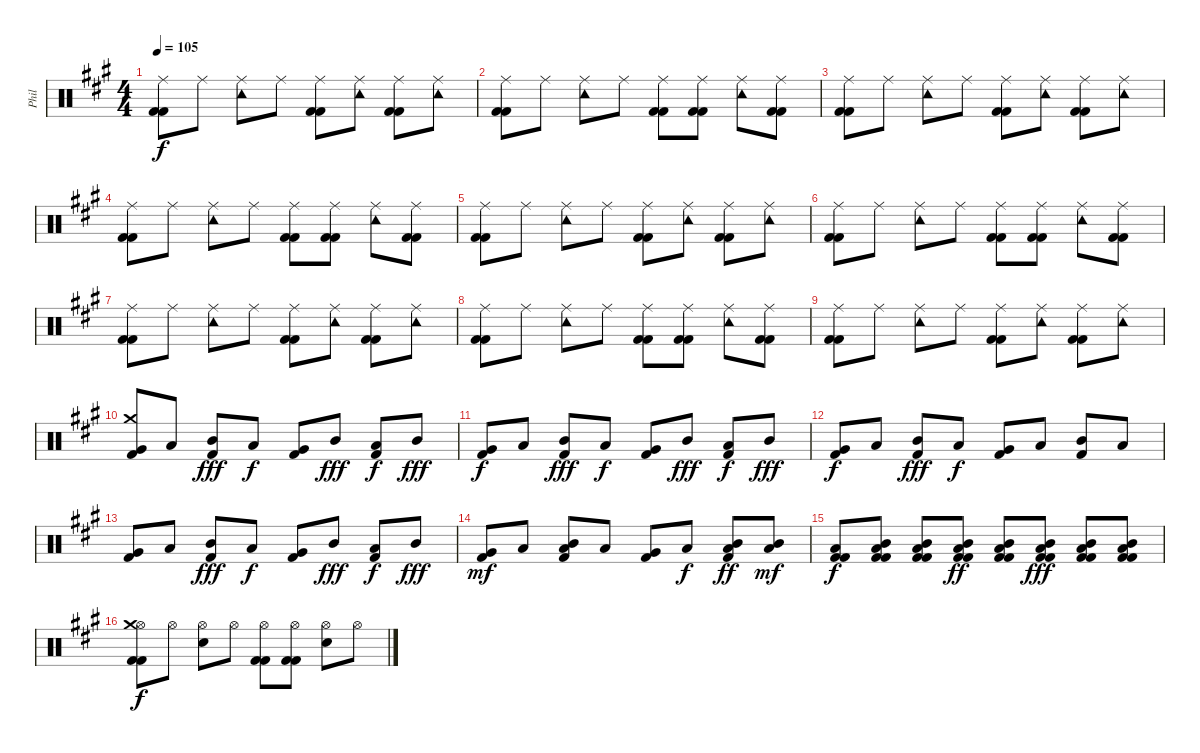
\track ("Phil" "Phil") {instrument percussion}
\staff {score}
\articulation defaults
\ts (4 4)
\tempo 105
\clef neutral
\ks a
("Kick (hit) 2" "Ride (middle)" "Kick (hit) 2").8{dy f} "Ride (middle)".8 ("Ride (middle)" "Tambourine (hit)").8 "Ride (middle)".8 ("Kick (hit) 2" "Ride (middle)" "Kick (hit) 2").8 ("Ride (middle)" "Tambourine (hit)").8 ("Kick (hit) 2" "Ride (middle)" "Kick (hit) 2").8 ("Ride (middle)" "Tambourine (hit)").8 |
("Kick (hit) 2" "Ride (middle)" "Kick (hit) 2").8 "Ride (middle)".8 ("Ride (middle)" "Tambourine (hit)").8 "Ride (middle)".8 ("Kick (hit) 2" "Ride (middle)" "Kick (hit) 2").8 ("Kick (hit) 2" "Ride (middle)" "Kick (hit) 2").8 ("Ride (middle)" "Tambourine (hit)").8 ("Kick (hit) 2" "Ride (middle)" "Kick (hit) 2").8 |
("Kick (hit) 2" "Ride (middle)" "Kick (hit) 2").8 "Ride (middle)".8 ("Ride (middle)" "Tambourine (hit)").8 "Ride (middle)".8 ("Kick (hit) 2" "Ride (middle)" "Kick (hit) 2").8 ("Ride (middle)" "Tambourine (hit)").8 ("Kick (hit) 2" "Ride (middle)" "Kick (hit) 2").8 ("Ride (middle)" "Tambourine (hit)").8 |
("Kick (hit) 2" "Ride (middle)" "Kick (hit) 2").8 "Ride (middle)".8 ("Ride (middle)" "Tambourine (hit)").8 "Ride (middle)".8 ("Kick (hit) 2" "Ride (middle)" "Kick (hit) 2").8 ("Kick (hit) 2" "Ride (middle)" "Kick (hit) 2").8 ("Ride (middle)" "Tambourine (hit)").8 ("Kick (hit) 2" "Ride (middle)" "Kick (hit) 2").8 |
("Kick (hit) 2" "Ride (middle)" "Kick (hit) 2").8 "Ride (middle)".8 ("Ride (middle)" "Tambourine (hit)").8 "Ride (middle)".8 ("Kick (hit) 2" "Ride (middle)" "Kick (hit) 2").8 ("Ride (middle)" "Tambourine (hit)").8 ("Kick (hit) 2" "Ride (middle)" "Kick (hit) 2").8 ("Ride (middle)" "Tambourine (hit)").8 |
("Kick (hit) 2" "Ride (middle)" "Kick (hit) 2").8 "Ride (middle)".8 ("Ride (middle)" "Tambourine (hit)").8 "Ride (middle)".8 ("Kick (hit) 2" "Ride (middle)" "Kick (hit) 2").8 ("Kick (hit) 2" "Ride (middle)" "Kick (hit) 2").8 ("Ride (middle)" "Tambourine (hit)").8 ("Kick (hit) 2" "Ride (middle)" "Kick (hit) 2").8 |
("Kick (hit) 2" "Ride (middle)" "Kick (hit) 2").8 "Ride (middle)".8 ("Ride (middle)" "Tambourine (hit)").8 "Ride (middle)".8 ("Kick (hit) 2" "Ride (middle)" "Kick (hit) 2").8 ("Ride (middle)" "Tambourine (hit)").8 ("Kick (hit) 2" "Ride (middle)" "Kick (hit) 2").8 ("Ride (middle)" "Tambourine (hit)").8 |
("Kick (hit) 2" "Ride (middle)" "Kick (hit) 2").8 "Ride (middle)".8 ("Ride (middle)" "Tambourine (hit)").8 "Ride (middle)".8 ("Kick (hit) 2" "Ride (middle)" "Kick (hit) 2").8 ("Kick (hit) 2" "Ride (middle)" "Kick (hit) 2").8 ("Ride (middle)" "Tambourine (hit)").8 ("Kick (hit) 2" "Ride (middle)" "Kick (hit) 2").8 |
("Kick (hit) 2" "Ride (middle)" "Kick (hit) 2").8 "Ride (middle)".8 ("Ride (middle)" "Tambourine (hit)").8 "Ride (middle)".8 ("Kick (hit) 2" "Ride (middle)" "Kick (hit) 2").8 ("Ride (middle)" "Tambourine (hit)").8 ("Kick (hit) 2" "Ride (middle)" "Kick (hit) 2").8 ("Ride (middle)" "Tambourine (hit)").8 |
("Crash medium (hit)" "Very Low Tom (hit)" "Kick (hit) 2").8 "Low Tom (hit)".8 ("Mid Tom (hit)" "Kick (hit) 2").8{dy fff} "Low Tom (hit)".8{dy f} ("Very Low Tom (hit)" "Kick (hit) 2").8 "Mid Tom (hit)".8{dy fff} ("Low Tom (hit)" "Kick (hit) 2").8{dy f} "Mid Tom (hit)".8{dy fff} |
("Very Low Tom (hit)" "Kick (hit) 2").8{dy f} "Low Tom (hit)".8 ("Mid Tom (hit)" "Kick (hit) 2").8{dy fff} "Low Tom (hit)".8{dy f} ("Very Low Tom (hit)" "Kick (hit) 2").8 "Mid Tom (hit)".8{dy fff} ("Low Tom (hit)" "Kick (hit) 2").8{dy f} "Mid Tom (hit)".8{dy fff} |
("Very Low Tom (hit)" "Kick (hit) 2").8{dy f} "Low Tom (hit)".8 ("Mid Tom (hit)" "Kick (hit) 2").8{dy fff} "Low Tom (hit)".8{dy f} ("Very Low Tom (hit)" "Kick (hit) 2").8 "Low Tom (hit)".8 ("Mid Tom (hit)" "Kick (hit) 2").8 "Low Tom (hit)".8 |
("Very Low Tom (hit)" "Kick (hit) 2").8 "Low Tom (hit)".8 ("Mid Tom (hit)" "Kick (hit) 2").8{dy fff} "Low Tom (hit)".8{dy f} ("Very Low Tom (hit)" "Kick (hit) 2").8 "Mid Tom (hit)".8{dy fff} ("Low Tom (hit)" "Kick (hit) 2").8{dy f} "Mid Tom (hit)".8{dy fff} |
("Very Low Tom (hit)" "Kick (hit) 2").8{dy mf} "Low Tom (hit)".8 ("Mid Tom (hit)" "Low Tom (hit)" "Kick (hit) 2").8 "Low Tom (hit)".8 ("Very Low Tom (hit)" "Kick (hit) 2").8 "Low Tom (hit)".8{dy f} ("Mid Tom (hit)" "Low Tom (hit)" "Kick (hit) 2").8{dy ff} ("Mid Tom (hit)" "Low Tom (hit)").8{dy mf} |
("Kick (hit) 2" "Low Tom (hit)" "Kick (hit) 2").8{dy f} ("Kick (hit) 2" "Low Tom (hit)" "Kick (hit) 2" "Mid Tom (hit)").8 ("Kick (hit) 2" "Low Tom (hit)" "Kick (hit) 2" "Mid Tom (hit)").8 ("Kick (hit) 2" "Low Tom (hit)" "Kick (hit) 2" "Mid Tom (hit)").8{dy ff} ("Kick (hit) 2" "Low Tom (hit)" "Kick (hit) 2" "Mid Tom (hit)").8 ("Kick (hit) 2" "Low Tom (hit)" "Kick (hit) 2" "Mid Tom (hit)").8{dy fff} ("Kick (hit) 2" "Low Tom (hit)" "Kick (hit) 2" "Mid Tom (hit)").8 ("Kick (hit) 2" "Low Tom (hit)" "Kick (hit) 2" "Mid Tom (hit)").8 |
("Kick (hit) 2" "Hi-Hat (open)" "Kick (hit) 2" "Crash medium (hit)").8{dy f} "Hi-Hat (open)".8 ("Hi-Hat (open)" "Electric Snare (hit)").8 "Hi-Hat (open)".8 ("Kick (hit) 2" "Hi-Hat (open)" "Kick (hit) 2").8 ("Kick (hit) 2" "Hi-Hat (open)" "Kick (hit) 2").8 ("Hi-Hat (open)" "Electric Snare (hit)").8 "Hi-Hat (open)".8
